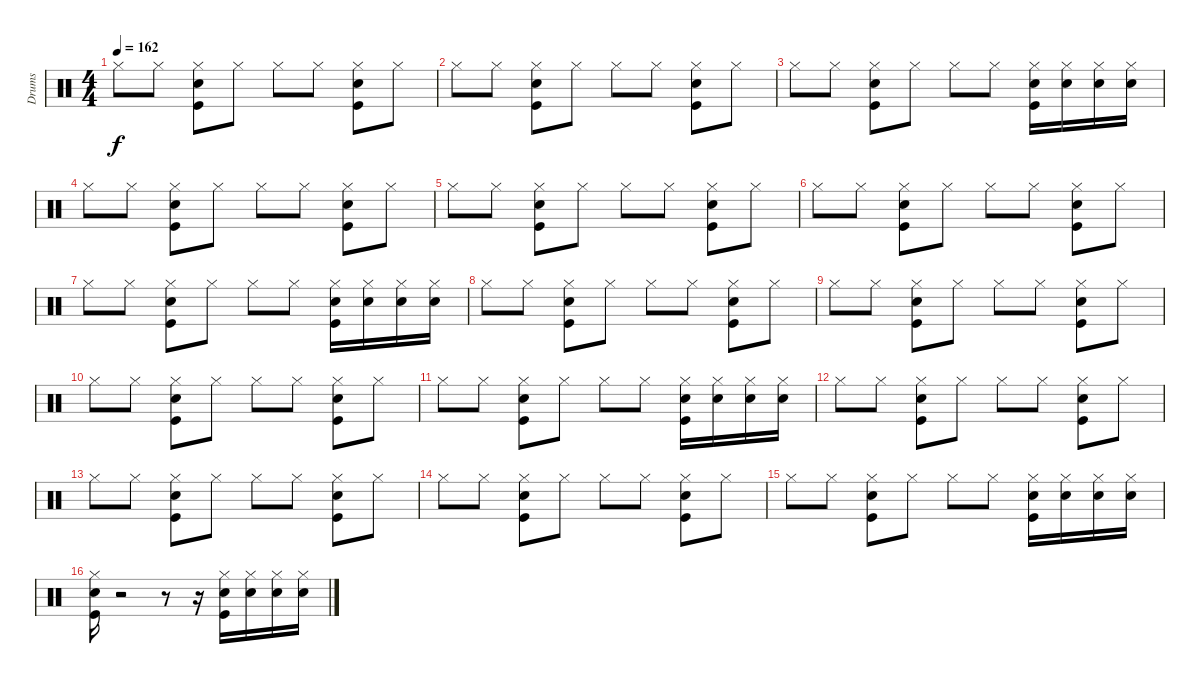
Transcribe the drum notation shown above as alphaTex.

\track ("Drums" "Drums") {instrument percussion}
\staff {score}
\articulation defaults
\ts (4 4)
\tempo 162
\clef neutral
\ks c "Hi-Hat (closed)".8{dy f} "Hi-Hat (closed)".8
("Snare (hit) 2" "Kick (hit)" "Hi-Hat (closed)").8 "Hi-Hat (closed)".8 "Hi-Hat (closed)".8 "Hi-Hat (closed)".8 ("Snare (hit) 2" "Kick (hit)" "Hi-Hat (closed)").8 "Hi-Hat (closed)".8 |
"Hi-Hat (closed)".8 "Hi-Hat (closed)".8 ("Snare (hit) 2" "Kick (hit)" "Hi-Hat (closed)").8 "Hi-Hat (closed)".8 "Hi-Hat (closed)".8 "Hi-Hat (closed)".8 ("Snare (hit) 2" "Kick (hit)" "Hi-Hat (closed)").8 "Hi-Hat (closed)".8 |
"Hi-Hat (closed)".8 "Hi-Hat (closed)".8 ("Snare (hit) 2" "Kick (hit)" "Hi-Hat (closed)").8 "Hi-Hat (closed)".8 "Hi-Hat (closed)".8 "Hi-Hat (closed)".8 ("Snare (hit) 2" "Kick (hit)" "Hi-Hat (closed)").16 ("Hi-Hat (closed)" "Snare (hit) 2").16 ("Hi-Hat (closed)" "Snare (hit) 2").16 ("Snare (hit) 2" "Hi-Hat (closed)").16 |
"Hi-Hat (closed)".8 "Hi-Hat (closed)".8 ("Snare (hit) 2" "Kick (hit)" "Hi-Hat (closed)").8 "Hi-Hat (closed)".8 "Hi-Hat (closed)".8 "Hi-Hat (closed)".8 ("Snare (hit) 2" "Kick (hit)" "Hi-Hat (closed)").8 "Hi-Hat (closed)".8 |
"Hi-Hat (closed)".8 "Hi-Hat (closed)".8 ("Snare (hit) 2" "Kick (hit)" "Hi-Hat (closed)").8 "Hi-Hat (closed)".8 "Hi-Hat (closed)".8 "Hi-Hat (closed)".8 ("Snare (hit) 2" "Kick (hit)" "Hi-Hat (closed)").8 "Hi-Hat (closed)".8 |
"Hi-Hat (closed)".8 "Hi-Hat (closed)".8 ("Snare (hit) 2" "Kick (hit)" "Hi-Hat (closed)").8 "Hi-Hat (closed)".8 "Hi-Hat (closed)".8 "Hi-Hat (closed)".8 ("Snare (hit) 2" "Kick (hit)" "Hi-Hat (closed)").8 "Hi-Hat (closed)".8 |
"Hi-Hat (closed)".8 "Hi-Hat (closed)".8 ("Snare (hit) 2" "Kick (hit)" "Hi-Hat (closed)").8 "Hi-Hat (closed)".8 "Hi-Hat (closed)".8 "Hi-Hat (closed)".8 ("Snare (hit) 2" "Kick (hit)" "Hi-Hat (closed)").16 ("Hi-Hat (closed)" "Snare (hit) 2").16 ("Hi-Hat (closed)" "Snare (hit) 2").16 ("Snare (hit) 2" "Hi-Hat (closed)").16 |
"Hi-Hat (closed)".8 "Hi-Hat (closed)".8 ("Snare (hit) 2" "Kick (hit)" "Hi-Hat (closed)").8 "Hi-Hat (closed)".8 "Hi-Hat (closed)".8 "Hi-Hat (closed)".8 ("Snare (hit) 2" "Kick (hit)" "Hi-Hat (closed)").8 "Hi-Hat (closed)".8 |
"Hi-Hat (closed)".8 "Hi-Hat (closed)".8 ("Snare (hit) 2" "Kick (hit)" "Hi-Hat (closed)").8 "Hi-Hat (closed)".8 "Hi-Hat (closed)".8 "Hi-Hat (closed)".8 ("Snare (hit) 2" "Kick (hit)" "Hi-Hat (closed)").8 "Hi-Hat (closed)".8 |
"Hi-Hat (closed)".8 "Hi-Hat (closed)".8 ("Snare (hit) 2" "Kick (hit)" "Hi-Hat (closed)").8 "Hi-Hat (closed)".8 "Hi-Hat (closed)".8 "Hi-Hat (closed)".8 ("Snare (hit) 2" "Kick (hit)" "Hi-Hat (closed)").8 "Hi-Hat (closed)".8 |
"Hi-Hat (closed)".8 "Hi-Hat (closed)".8 ("Snare (hit) 2" "Kick (hit)" "Hi-Hat (closed)").8 "Hi-Hat (closed)".8 "Hi-Hat (closed)".8 "Hi-Hat (closed)".8 ("Snare (hit) 2" "Kick (hit)" "Hi-Hat (closed)").16 ("Hi-Hat (closed)" "Snare (hit) 2").16 ("Hi-Hat (closed)" "Snare (hit) 2").16 ("Snare (hit) 2" "Hi-Hat (closed)").16 |
"Hi-Hat (closed)".8 "Hi-Hat (closed)".8 ("Snare (hit) 2" "Kick (hit)" "Hi-Hat (closed)").8 "Hi-Hat (closed)".8 "Hi-Hat (closed)".8 "Hi-Hat (closed)".8 ("Snare (hit) 2" "Kick (hit)" "Hi-Hat (closed)").8 "Hi-Hat (closed)".8 |
"Hi-Hat (closed)".8 "Hi-Hat (closed)".8 ("Snare (hit) 2" "Kick (hit)" "Hi-Hat (closed)").8 "Hi-Hat (closed)".8 "Hi-Hat (closed)".8 "Hi-Hat (closed)".8 ("Snare (hit) 2" "Kick (hit)" "Hi-Hat (closed)").8 "Hi-Hat (closed)".8 |
"Hi-Hat (closed)".8 "Hi-Hat (closed)".8 ("Snare (hit) 2" "Kick (hit)" "Hi-Hat (closed)").8 "Hi-Hat (closed)".8 "Hi-Hat (closed)".8 "Hi-Hat (closed)".8 ("Snare (hit) 2" "Kick (hit)" "Hi-Hat (closed)").8 "Hi-Hat (closed)".8 |
"Hi-Hat (closed)".8 "Hi-Hat (closed)".8 ("Snare (hit) 2" "Kick (hit)" "Hi-Hat (closed)").8 "Hi-Hat (closed)".8 "Hi-Hat (closed)".8 "Hi-Hat (closed)".8 ("Snare (hit) 2" "Kick (hit)" "Hi-Hat (closed)").16 ("Hi-Hat (closed)" "Snare (hit) 2").16 ("Hi-Hat (closed)" "Snare (hit) 2").16 ("Snare (hit) 2" "Hi-Hat (closed)").16 |
("Snare (hit) 2" "Kick (hit)" "Hi-Hat (closed)").16 r.2 r.8 r.16 ("Snare (hit) 2" "Kick (hit)" "Hi-Hat (closed)").16 ("Hi-Hat (closed)" "Snare (hit) 2").16 ("Hi-Hat (closed)" "Snare (hit) 2").16 ("Hi-Hat (closed)" "Snare (hit) 2").16
